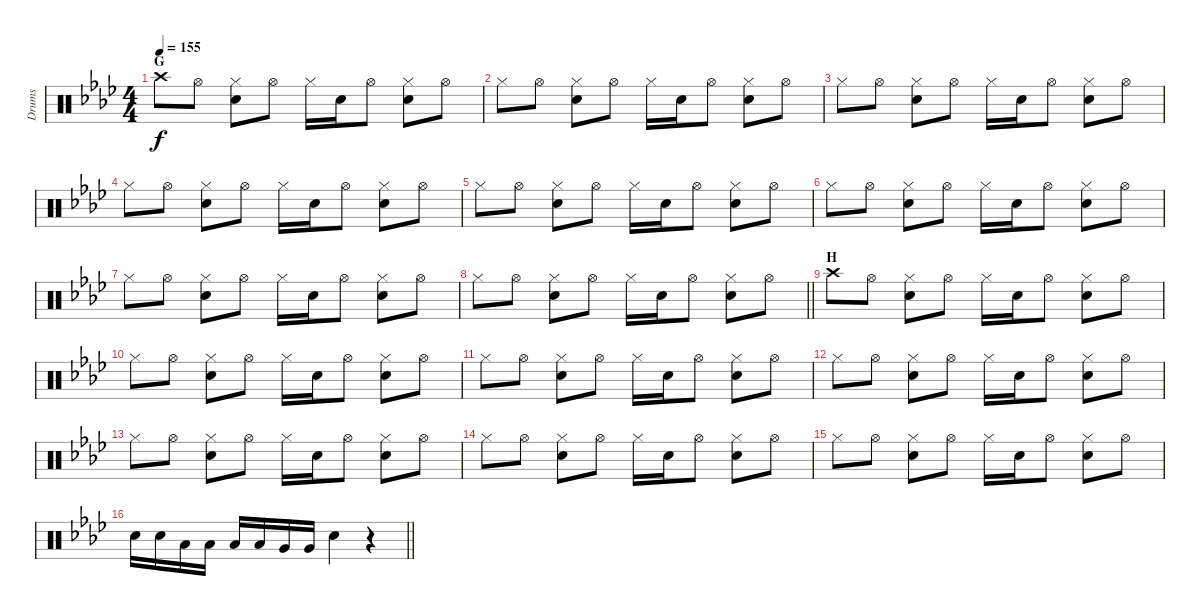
\track ("Drums" "Drums") {instrument percussion}
\staff {score}
\articulation defaults
\ts (4 4)
\section ("" "G")
\tempo 155
\clef neutral
\ks ab "Crash high (hit)".8{dy f} "Hi-Hat (open)".8
("Hi-Hat (closed)" "Snare (hit) 2").8 "Hi-Hat (open)".8 "Hi-Hat (closed)".16 "Snare (hit) 2".16 "Hi-Hat (open)".8 ("Hi-Hat (closed)" "Snare (hit) 2").8 "Hi-Hat (open)".8 |
"Hi-Hat (closed)".8 "Hi-Hat (open)".8 ("Hi-Hat (closed)" "Snare (hit) 2").8 "Hi-Hat (open)".8 "Hi-Hat (closed)".16 "Snare (hit) 2".16 "Hi-Hat (open)".8 ("Hi-Hat (closed)" "Snare (hit) 2").8 "Hi-Hat (open)".8 |
"Hi-Hat (closed)".8 "Hi-Hat (open)".8 ("Hi-Hat (closed)" "Snare (hit) 2").8 "Hi-Hat (open)".8 "Hi-Hat (closed)".16 "Snare (hit) 2".16 "Hi-Hat (open)".8 ("Hi-Hat (closed)" "Snare (hit) 2").8 "Hi-Hat (open)".8 |
"Hi-Hat (closed)".8 "Hi-Hat (open)".8 ("Hi-Hat (closed)" "Snare (hit) 2").8 "Hi-Hat (open)".8 "Hi-Hat (closed)".16 "Snare (hit) 2".16 "Hi-Hat (open)".8 ("Hi-Hat (closed)" "Snare (hit) 2").8 "Hi-Hat (open)".8 |
"Hi-Hat (closed)".8 "Hi-Hat (open)".8 ("Hi-Hat (closed)" "Snare (hit) 2").8 "Hi-Hat (open)".8 "Hi-Hat (closed)".16 "Snare (hit) 2".16 "Hi-Hat (open)".8 ("Hi-Hat (closed)" "Snare (hit) 2").8 "Hi-Hat (open)".8 |
"Hi-Hat (closed)".8 "Hi-Hat (open)".8 ("Hi-Hat (closed)" "Snare (hit) 2").8 "Hi-Hat (open)".8 "Hi-Hat (closed)".16 "Snare (hit) 2".16 "Hi-Hat (open)".8 ("Hi-Hat (closed)" "Snare (hit) 2").8 "Hi-Hat (open)".8 |
"Hi-Hat (closed)".8 "Hi-Hat (open)".8 ("Hi-Hat (closed)" "Snare (hit) 2").8 "Hi-Hat (open)".8 "Hi-Hat (closed)".16 "Snare (hit) 2".16 "Hi-Hat (open)".8 ("Hi-Hat (closed)" "Snare (hit) 2").8 "Hi-Hat (open)".8 |
\barLineRight lightlight "Hi-Hat (closed)".8 "Hi-Hat (open)".8
("Hi-Hat (closed)" "Snare (hit) 2").8 "Hi-Hat (open)".8 "Hi-Hat (closed)".16 "Snare (hit) 2".16 "Hi-Hat (open)".8 ("Hi-Hat (closed)" "Snare (hit) 2").8 "Hi-Hat (open)".8 |
\section ("" "H")
"Crash high (hit)".8 "Hi-Hat (open)".8 ("Hi-Hat (closed)" "Snare (hit) 2").8 "Hi-Hat (open)".8 "Hi-Hat (closed)".16 "Snare (hit) 2".16 "Hi-Hat (open)".8 ("Hi-Hat (closed)" "Snare (hit) 2").8 "Hi-Hat (open)".8 |
"Hi-Hat (closed)".8 "Hi-Hat (open)".8 ("Hi-Hat (closed)" "Snare (hit) 2").8 "Hi-Hat (open)".8 "Hi-Hat (closed)".16 "Snare (hit) 2".16 "Hi-Hat (open)".8 ("Hi-Hat (closed)" "Snare (hit) 2").8 "Hi-Hat (open)".8 |
"Hi-Hat (closed)".8 "Hi-Hat (open)".8 ("Hi-Hat (closed)" "Snare (hit) 2").8 "Hi-Hat (open)".8 "Hi-Hat (closed)".16 "Snare (hit) 2".16 "Hi-Hat (open)".8 ("Hi-Hat (closed)" "Snare (hit) 2").8 "Hi-Hat (open)".8 |
"Hi-Hat (closed)".8 "Hi-Hat (open)".8 ("Hi-Hat (closed)" "Snare (hit) 2").8 "Hi-Hat (open)".8 "Hi-Hat (closed)".16 "Snare (hit) 2".16 "Hi-Hat (open)".8 ("Hi-Hat (closed)" "Snare (hit) 2").8 "Hi-Hat (open)".8 |
"Hi-Hat (closed)".8 "Hi-Hat (open)".8 ("Hi-Hat (closed)" "Snare (hit) 2").8 "Hi-Hat (open)".8 "Hi-Hat (closed)".16 "Snare (hit) 2".16 "Hi-Hat (open)".8 ("Hi-Hat (closed)" "Snare (hit) 2").8 "Hi-Hat (open)".8 |
"Hi-Hat (closed)".8 "Hi-Hat (open)".8 ("Hi-Hat (closed)" "Snare (hit) 2").8 "Hi-Hat (open)".8 "Hi-Hat (closed)".16 "Snare (hit) 2".16 "Hi-Hat (open)".8 ("Hi-Hat (closed)" "Snare (hit) 2").8 "Hi-Hat (open)".8 |
"Hi-Hat (closed)".8 "Hi-Hat (open)".8 ("Hi-Hat (closed)" "Snare (hit) 2").8 "Hi-Hat (open)".8 "Hi-Hat (closed)".16 "Snare (hit) 2".16 "Hi-Hat (open)".8 ("Hi-Hat (closed)" "Snare (hit) 2").8 "Hi-Hat (open)".8 |
\barLineRight lightlight "Snare (hit) 2".16 "Snare (hit) 2".16 "Low Tom (hit)".16 "Low Tom (hit)".16 "Low Tom (hit)".16 "Low Tom (hit)".16 "Very Low Tom (hit)".16 "Very Low Tom (hit)".16 "Snare (hit) 2".4
r.4
